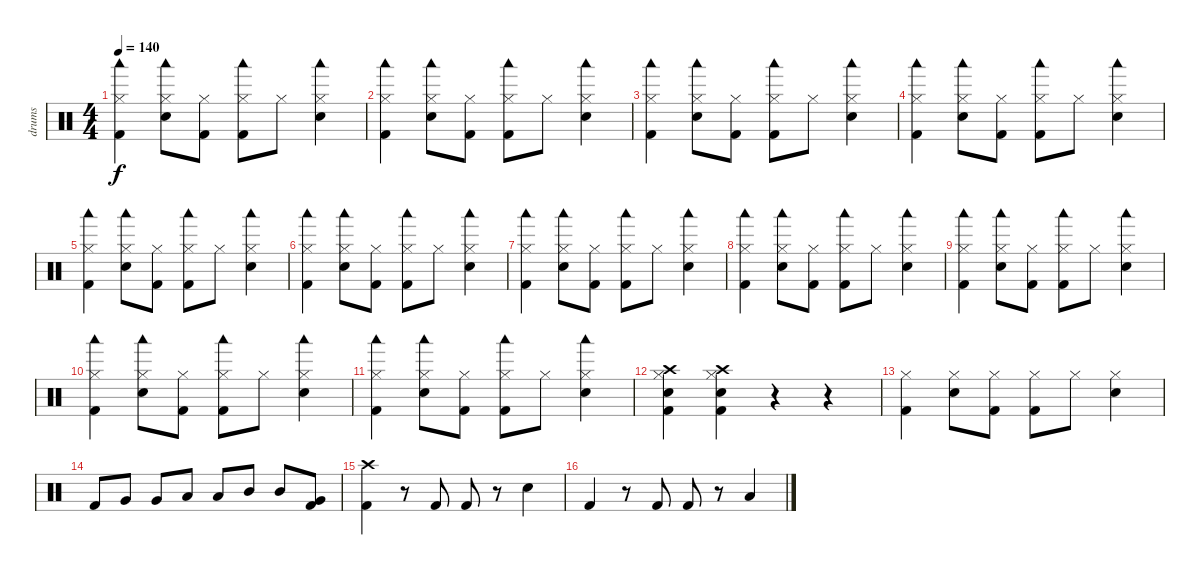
\track ("drums" "drums") {instrument percussion}
\staff {score}
\articulation defaults
\ts (4 4)
\tempo 140
\clef neutral
\ks c
("Woodblock low (hit)" "Hi-Hat (closed)" "Kick (hit) 2").4{dy f} ("Woodblock low (hit)" "Hi-Hat (closed)" "Snare (hit) 2").8 ("Hi-Hat (closed)" "Kick (hit) 2").8 ("Woodblock low (hit)" "Hi-Hat (closed)" "Kick (hit) 2").8 "Hi-Hat (closed)".8 ("Woodblock low (hit)" "Hi-Hat (closed)" "Snare (hit) 2").4 |
("Woodblock low (hit)" "Hi-Hat (closed)" "Kick (hit) 2").4 ("Woodblock low (hit)" "Hi-Hat (closed)" "Snare (hit) 2").8 ("Hi-Hat (closed)" "Kick (hit) 2").8 ("Woodblock low (hit)" "Hi-Hat (closed)" "Kick (hit) 2").8 "Hi-Hat (closed)".8 ("Woodblock low (hit)" "Hi-Hat (closed)" "Snare (hit) 2").4 |
("Woodblock low (hit)" "Hi-Hat (closed)" "Kick (hit) 2").4 ("Woodblock low (hit)" "Hi-Hat (closed)" "Snare (hit) 2").8 ("Hi-Hat (closed)" "Kick (hit) 2").8 ("Woodblock low (hit)" "Hi-Hat (closed)" "Kick (hit) 2").8 "Hi-Hat (closed)".8 ("Woodblock low (hit)" "Hi-Hat (closed)" "Snare (hit) 2").4 |
("Woodblock low (hit)" "Hi-Hat (closed)" "Kick (hit) 2").4 ("Woodblock low (hit)" "Hi-Hat (closed)" "Snare (hit) 2").8 ("Hi-Hat (closed)" "Kick (hit) 2").8 ("Woodblock low (hit)" "Hi-Hat (closed)" "Kick (hit) 2").8 "Hi-Hat (closed)".8 ("Woodblock low (hit)" "Hi-Hat (closed)" "Snare (hit) 2").4 |
("Woodblock low (hit)" "Hi-Hat (closed)" "Kick (hit) 2").4 ("Woodblock low (hit)" "Hi-Hat (closed)" "Snare (hit) 2").8 ("Hi-Hat (closed)" "Kick (hit) 2").8 ("Woodblock low (hit)" "Hi-Hat (closed)" "Kick (hit) 2").8 "Hi-Hat (closed)".8 ("Woodblock low (hit)" "Hi-Hat (closed)" "Snare (hit) 2").4 |
("Woodblock low (hit)" "Hi-Hat (closed)" "Kick (hit) 2").4 ("Woodblock low (hit)" "Hi-Hat (closed)" "Snare (hit) 2").8 ("Hi-Hat (closed)" "Kick (hit) 2").8 ("Woodblock low (hit)" "Hi-Hat (closed)" "Kick (hit) 2").8 "Hi-Hat (closed)".8 ("Woodblock low (hit)" "Hi-Hat (closed)" "Snare (hit) 2").4 |
("Woodblock low (hit)" "Hi-Hat (closed)" "Kick (hit) 2").4 ("Woodblock low (hit)" "Hi-Hat (closed)" "Snare (hit) 2").8 ("Hi-Hat (closed)" "Kick (hit) 2").8 ("Woodblock low (hit)" "Hi-Hat (closed)" "Kick (hit) 2").8 "Hi-Hat (closed)".8 ("Woodblock low (hit)" "Hi-Hat (closed)" "Snare (hit) 2").4 |
("Woodblock low (hit)" "Hi-Hat (closed)" "Kick (hit) 2").4 ("Woodblock low (hit)" "Hi-Hat (closed)" "Snare (hit) 2").8 ("Hi-Hat (closed)" "Kick (hit) 2").8 ("Woodblock low (hit)" "Hi-Hat (closed)" "Kick (hit) 2").8 "Hi-Hat (closed)".8 ("Woodblock low (hit)" "Hi-Hat (closed)" "Snare (hit) 2").4 |
("Woodblock low (hit)" "Hi-Hat (closed)" "Kick (hit) 2").4 ("Woodblock low (hit)" "Hi-Hat (closed)" "Snare (hit) 2").8 ("Hi-Hat (closed)" "Kick (hit) 2").8 ("Woodblock low (hit)" "Hi-Hat (closed)" "Kick (hit) 2").8 "Hi-Hat (closed)".8 ("Woodblock low (hit)" "Hi-Hat (closed)" "Snare (hit) 2").4 |
("Woodblock low (hit)" "Hi-Hat (closed)" "Kick (hit) 2").4 ("Woodblock low (hit)" "Hi-Hat (closed)" "Snare (hit) 2").8 ("Hi-Hat (closed)" "Kick (hit) 2").8 ("Woodblock low (hit)" "Hi-Hat (closed)" "Kick (hit) 2").8 "Hi-Hat (closed)".8 ("Woodblock low (hit)" "Hi-Hat (closed)" "Snare (hit) 2").4 |
("Woodblock low (hit)" "Hi-Hat (closed)" "Kick (hit) 2").4 ("Woodblock low (hit)" "Hi-Hat (closed)" "Snare (hit) 2").8 ("Hi-Hat (closed)" "Kick (hit) 2").8 ("Woodblock low (hit)" "Hi-Hat (closed)" "Kick (hit) 2").8 "Hi-Hat (closed)".8 ("Woodblock low (hit)" "Hi-Hat (closed)" "Snare (hit) 2").4 |
("Crash high (hit)" "Hi-Hat (closed)" "Snare (hit) 2" "Kick (hit) 2").4 ("Crash high (hit)" "Hi-Hat (closed)" "Snare (hit) 2" "Kick (hit) 2").4 r.4 r.4 |
("Hi-Hat (closed)" "Kick (hit) 2").4 ("Hi-Hat (closed)" "Snare (hit) 2").8 ("Hi-Hat (closed)" "Kick (hit) 2").8 ("Hi-Hat (closed)" "Kick (hit) 2").8 "Hi-Hat (closed)".8 ("Hi-Hat (closed)" "Snare (hit) 2").4 |
"Kick (hit) 2".8 "Very Low Tom (hit)".8 "Very Low Tom (hit)".8 "Low Tom (hit)".8 "Low Tom (hit)".8 "Mid Tom (hit)".8 "Mid Tom (hit)".8 ("Very Low Tom (hit)" "Kick (hit) 2").8 |
("Crash high (hit)" "Kick (hit) 2").4 r.8 "Kick (hit) 2".8 "Kick (hit) 2".8 r.8 "Snare (hit) 2".4 |
"Kick (hit) 2".4 r.8 "Kick (hit) 2".8 "Kick (hit) 2".8 r.8 "Low Tom (hit)".4
